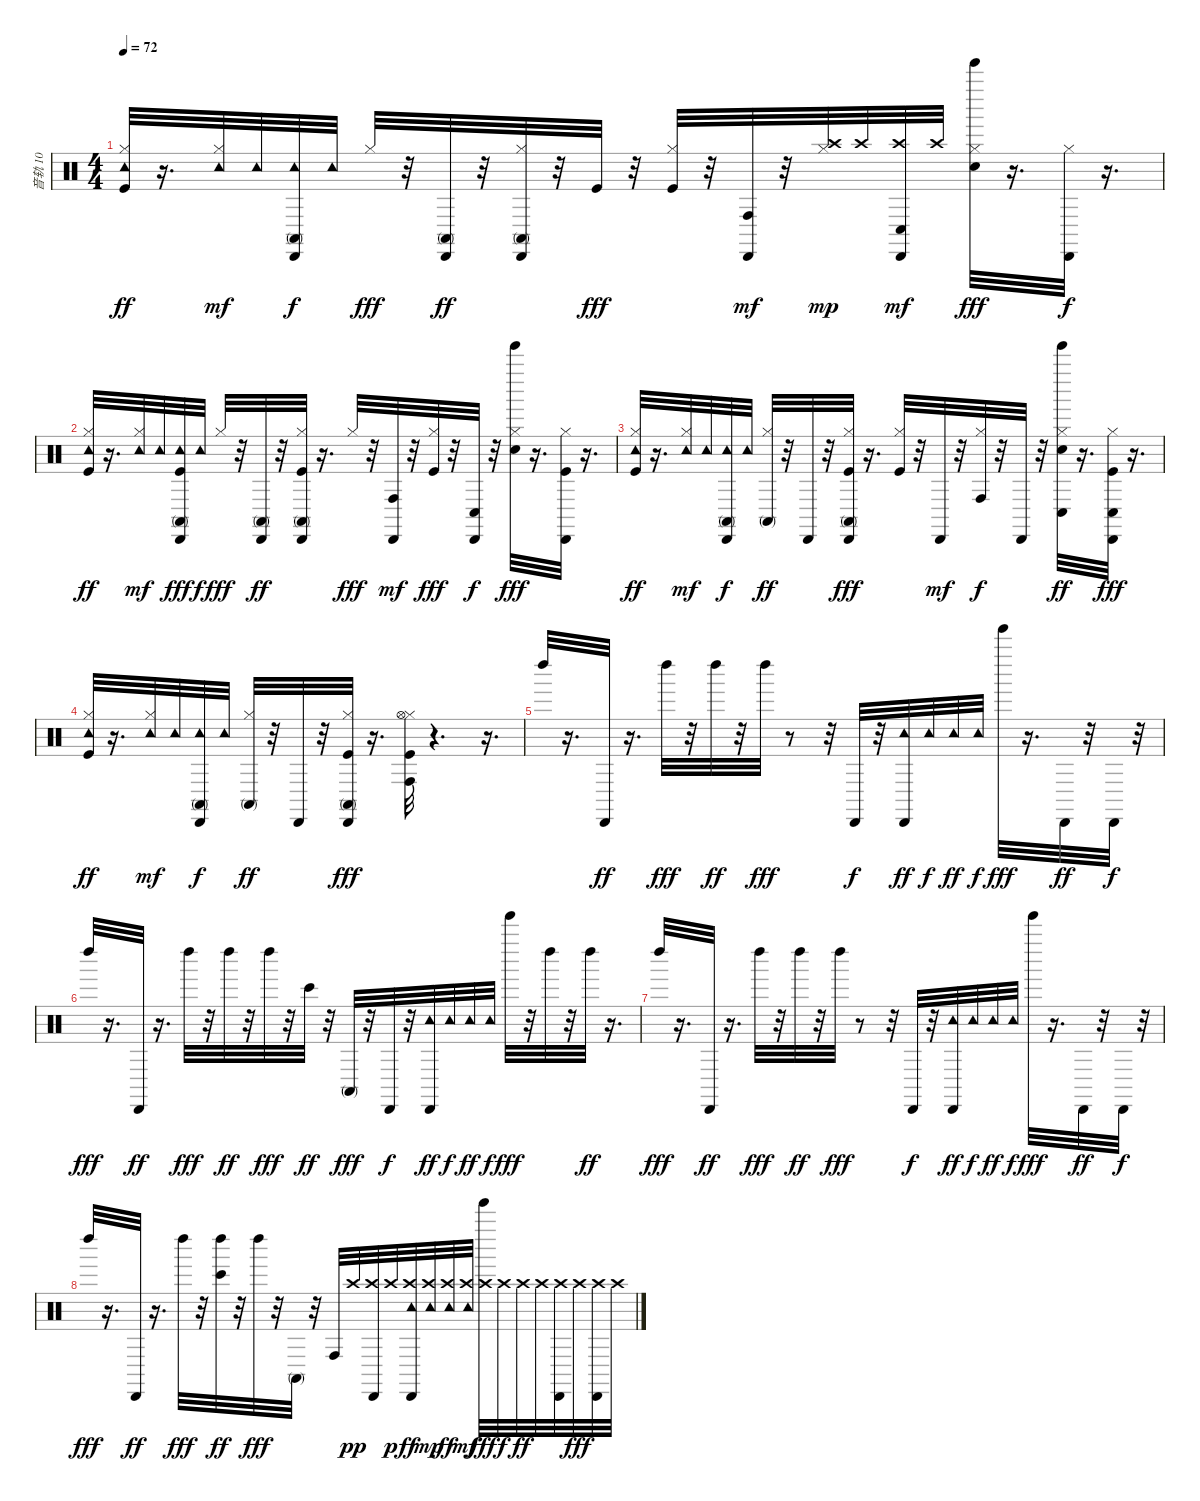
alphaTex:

\track ("音轨 10" "音轨 10") {instrument percussion}
\staff {score}
\articulation defaults
\ts (4 4)
\tempo 72
\clef neutral
\ks c
("Kick (hit)" "Hi-Hat (closed)" "Tambourine (hit)").32{dy ff} r.16{d} ("Hi-Hat (closed)" "Tambourine (hit)").32{dy mf} "Tambourine (hit)".32 ("Tambourine (hit)" "Conga high (mute)" "Cabasa (hit)").32{dy f} "Tambourine (hit)".32 "Hi-Hat (closed)".32{dy fff} r.32 ("Conga high (mute)" "Cabasa (hit)").32{dy ff} r.32 ("Hi-Hat (closed)" "Conga high (mute)" "Cabasa (hit)").32 r.32 "Kick (hit)".32{dy fff} r.32 ("Kick (hit)" "Hi-Hat (closed)").32 r.32 ("Conga high (hit)" "Cabasa (hit)").32{dy mf} r.32 ("Hi-Hat (closed)" "Crash high (hit)").32{dy mp} "Crash high (hit)".32 ("Crash high (hit)" "Conga low (hit)" "Cabasa (hit)").32{dy mf} "Crash high (hit)".32 ("Electric Snare (hit)" "Hi-Hat (closed)" "Tinkle Bell (hit)").32{dy fff} r.16{d} ("Hi-Hat (closed)" "Cabasa (hit)").32{dy f} r.16{d} |
("Kick (hit)" "Hi-Hat (closed)" "Tambourine (hit)").32{dy ff} r.16{d} ("Hi-Hat (closed)" "Tambourine (hit)").32{dy mf} "Tambourine (hit)".32 ("Kick (hit)" "Tambourine (hit)" "Conga high (mute)" "Cabasa (hit)").32{dy fff} "Tambourine (hit)".32{dy f} "Hi-Hat (closed)".32{dy fff} r.32 ("Conga high (mute)" "Cabasa (hit)").32{dy ff} r.32 ("Kick (hit)" "Hi-Hat (closed)" "Conga high (mute)" "Cabasa (hit)").32 r.16{d} "Hi-Hat (closed)".32{dy fff} r.32 ("Conga high (hit)" "Cabasa (hit)").32{dy mf} r.32 ("Kick (hit)" "Hi-Hat (closed)").32{dy fff} r.32 ("Conga low (hit)" "Cabasa (hit)").32{dy f} r.32 ("Electric Snare (hit)" "Hi-Hat (closed)" "Tinkle Bell (hit)").32{dy fff} r.16{d} ("Kick (hit)" "Hi-Hat (closed)" "Cabasa (hit)").32 r.16{d} |
("Kick (hit)" "Hi-Hat (closed)" "Tambourine (hit)").32{dy ff} r.16{d} ("Hi-Hat (closed)" "Tambourine (hit)").32{dy mf} "Tambourine (hit)".32 ("Tambourine (hit)" "Conga high (mute)" "Cabasa (hit)").32{dy f} "Tambourine (hit)".32 ("Hi-Hat (closed)" "Conga high (mute)").32{dy ff} r.32 "Cabasa (hit)".32 r.32 ("Kick (hit)" "Hi-Hat (closed)" "Conga high (mute)" "Cabasa (hit)").32{dy fff} r.16{d} ("Kick (hit)" "Hi-Hat (closed)").32 r.32 "Cabasa (hit)".32{dy mf} r.32 ("Hi-Hat (closed)" "Conga high (hit)").32{dy f} r.32 "Cabasa (hit)".32 r.32 ("Electric Snare (hit)" "Hi-Hat (closed)" "Tinkle Bell (hit)" "Conga low (hit)").32{dy ff} r.16{d} ("Kick (hit)" "Hi-Hat (closed)" "Conga low (hit)" "Cabasa (hit)").32{dy fff} r.16{d} |
("Kick (hit)" "Hi-Hat (closed)" "Tambourine (hit)").32{dy ff} r.16{d} ("Hi-Hat (closed)" "Tambourine (hit)").32{dy mf} "Tambourine (hit)".32 ("Tambourine (hit)" "Conga high (mute)" "Cabasa (hit)").32{dy f} "Tambourine (hit)".32 ("Hi-Hat (closed)" "Conga high (mute)").32{dy ff} r.32 "Cabasa (hit)".32 r.32 ("Kick (hit)" "Hi-Hat (closed)" "Conga high (mute)" "Cabasa (hit)").32{dy fff} r.16{d} ("Kick (hit)" "Hi-Hat (closed)" "Hi-Hat (open)" "Conga high (hit)").32 r.4{d} r.16{d} |
"Left Maraca (hit)".32 r.16{d} "Cabasa (hit)".32{dy ff} r.16{d} "Left Maraca (hit)".32{dy fff} r.32 "Left Maraca (hit)".32{dy ff} r.32 "Left Maraca (hit)".32{dy fff} r.8 r.32 "Cabasa (hit)".32{dy f} r.32 ("Tambourine (hit)" "Cabasa (hit)").32{dy ff} "Tambourine (hit)".32{dy f} "Tambourine (hit)".32{dy ff} "Tambourine (hit)".32{dy f} "Tinkle Bell (hit)".32{dy fff} r.16{d} "Cabasa (hit)".32{dy ff} r.32 "Cabasa (hit)".32{dy f} r.32 |
"Left Maraca (hit)".32{dy fff} r.16{d} "Cabasa (hit)".32{dy ff} r.16{d} "Left Maraca (hit)".32{dy fff} r.32 "Left Maraca (hit)".32{dy ff} r.32 "Left Maraca (hit)".32{dy fff} r.32 "Bongo High (hit)".32{dy ff} r.32 "Conga high (mute)".32{dy fff} r.32 "Cabasa (hit)".32{dy f} r.32 ("Tambourine (hit)" "Cabasa (hit)").32{dy ff} "Tambourine (hit)".32{dy f} "Tambourine (hit)".32{dy ff} "Tambourine (hit)".32{dy f} "Tinkle Bell (hit)".32{dy fff} r.32 "Left Maraca (hit)".32 r.32 "Left Maraca (hit)".32{dy ff} r.16{d} |
"Left Maraca (hit)".32{dy fff} r.16{d} "Cabasa (hit)".32{dy ff} r.16{d} "Left Maraca (hit)".32{dy fff} r.32 "Left Maraca (hit)".32{dy ff} r.32 "Left Maraca (hit)".32{dy fff} r.8 r.32 "Cabasa (hit)".32{dy f} r.32 ("Tambourine (hit)" "Cabasa (hit)").32{dy ff} "Tambourine (hit)".32{dy f} "Tambourine (hit)".32{dy ff} "Tambourine (hit)".32{dy f} "Tinkle Bell (hit)".32{dy fff} r.16{d} "Cabasa (hit)".32{dy ff} r.32 "Cabasa (hit)".32{dy f} r.32 |
"Left Maraca (hit)".32{dy fff} r.16{d} "Cabasa (hit)".32{dy ff} r.16{d} "Left Maraca (hit)".32{dy fff} r.32 ("Bongo High (hit)" "Left Maraca (hit)").32{dy ff} r.32 "Left Maraca (hit)".32{dy fff} r.32 "Conga high (mute)".32 r.32 "Conga high (hit)".32 "Crash high (hit)".32{dy pp} ("Crash high (hit)" "Cabasa (hit)").32 "Crash high (hit)".32{dy p} ("Crash high (hit)" "Tambourine (hit)" "Cabasa (hit)").32{dy ff} ("Crash high (hit)" "Tambourine (hit)").32{dy mp} ("Crash high (hit)" "Tambourine (hit)").32{dy ff} ("Crash high (hit)" "Tambourine (hit)").32{dy mf} ("Crash high (hit)" "Tinkle Bell (hit)").32{dy fff} "Crash high (hit)".32{dy f} "Crash high (hit)".32{dy ff} "Crash high (hit)".32 ("Crash high (hit)" "Cabasa (hit)").32 "Crash high (hit)".32{dy fff} ("Crash high (hit)" "Cabasa (hit)").32 "Crash high (hit)".32
